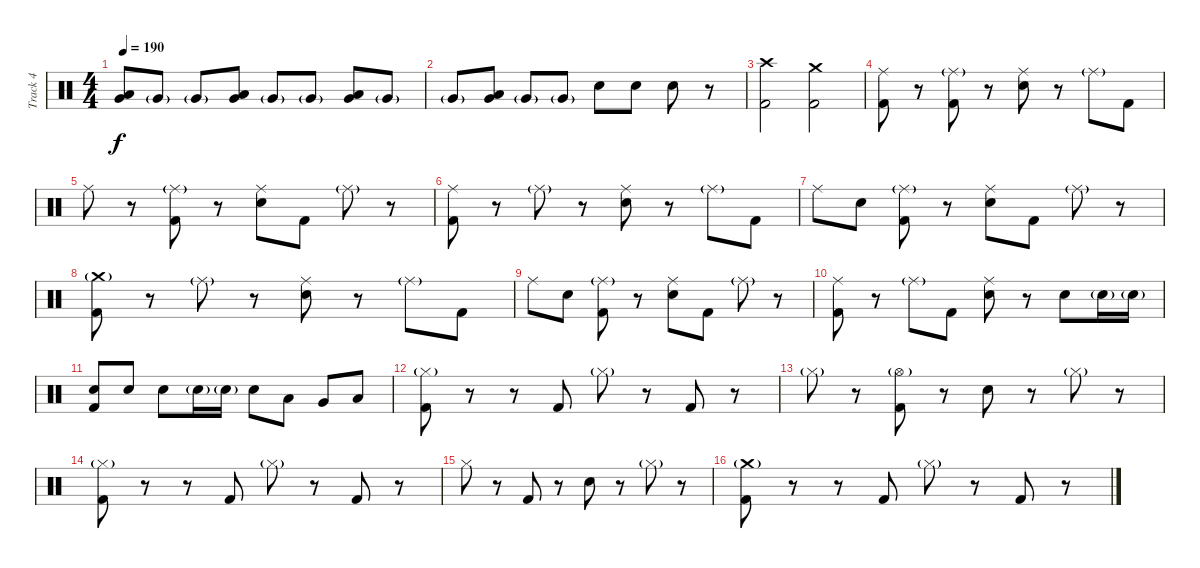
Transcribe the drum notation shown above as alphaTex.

\track ("Track 4" "Track 4") {instrument percussion}
\staff {score}
\articulation defaults
\ts (4 4)
\tempo 190
\clef neutral
\ks c
("Very Low Tom (hit)" "Low Tom (hit)").8{dy f} "Very Low Tom (hit)"{g}.8 "Very Low Tom (hit)"{g}.8 ("Very Low Tom (hit)" "Low Tom (hit)").8 "Very Low Tom (hit)"{g}.8 "Very Low Tom (hit)"{g}.8 ("Very Low Tom (hit)" "Low Tom (hit)").8 "Very Low Tom (hit)"{g}.8 |
"Very Low Tom (hit)"{g}.8 ("Very Low Tom (hit)" "Low Tom (hit)").8 "Very Low Tom (hit)"{g}.8 "Very Low Tom (hit)"{g}.8 "Electric Snare (hit)".8 "Electric Snare (hit)".8 "Electric Snare (hit)".8 r.8 |
("Crash high (hit)" "Kick (hit) 2").2 ("Crash medium (hit)" "Kick (hit) 2").2 |
("Ride (middle)" "Kick (hit) 2").8 r.8 ("Ride (middle)"{g} "Kick (hit) 2").8 r.8 ("Ride (middle)" "Electric Snare (hit)").8 r.8 "Ride (middle)"{g}.8 "Kick (hit) 2".8 |
"Ride (middle)".8 r.8 ("Ride (middle)"{g} "Kick (hit) 2").8 r.8 ("Ride (middle)" "Electric Snare (hit)").8 "Kick (hit) 2".8 "Ride (middle)"{g}.8 r.8 |
("Ride (middle)" "Kick (hit) 2").8 r.8 "Ride (middle)"{g}.8 r.8 ("Ride (middle)" "Electric Snare (hit)").8 r.8 "Ride (middle)"{g}.8 "Kick (hit) 2".8 |
"Ride (middle)".8 "Electric Snare (hit)".8 ("Ride (middle)"{g} "Kick (hit) 2").8 r.8 ("Ride (middle)" "Electric Snare (hit)").8 "Kick (hit) 2".8 "Ride (middle)"{g}.8 r.8 |
("Crash medium (hit)"{g} "Kick (hit) 2").8 r.8 "Ride (middle)"{g}.8 r.8 ("Ride (middle)" "Electric Snare (hit)").8 r.8 "Ride (middle)"{g}.8 "Kick (hit) 2".8 |
"Ride (middle)".8 "Electric Snare (hit)".8 ("Ride (middle)"{g} "Kick (hit) 2").8 r.8 ("Ride (middle)" "Electric Snare (hit)").8 "Kick (hit) 2".8 "Ride (middle)"{g}.8 r.8 |
("Ride (middle)" "Kick (hit) 2").8 r.8 "Ride (middle)"{g}.8 "Kick (hit) 2".8 ("Ride (middle)" "Electric Snare (hit)").8 r.8 "Electric Snare (hit)".8 "Electric Snare (hit)"{g}.16 "Electric Snare (hit)"{g}.16 |
("Electric Snare (hit)" "Kick (hit) 2").8 "Electric Snare (hit)".8 "Electric Snare (hit)".8 "Electric Snare (hit)"{g}.16 "Electric Snare (hit)"{g}.16 "Electric Snare (hit)".8 "Low Tom (hit)".8 "Very Low Tom (hit)".8 "Low Floor Tom (hit)".8 |
("Hi-Hat (closed)"{g} "Kick (hit) 2").8 r.8 r.8 "Kick (hit) 2".8 "Hi-Hat (closed)"{g}.8 r.8 "Kick (hit) 2".8 r.8 |
"Hi-Hat (closed)"{g}.8 r.8 ("Hi-Hat (open)"{g} "Kick (hit) 2").8 r.8 "Electric Snare (hit)".8 r.8 "Hi-Hat (closed)"{g}.8 r.8 |
("Hi-Hat (closed)"{g} "Kick (hit) 2").8 r.8 r.8 "Kick (hit) 2".8 "Hi-Hat (closed)"{g}.8 r.8 "Kick (hit) 2".8 r.8 |
"Hi-Hat (closed)".8 r.8 "Kick (hit) 2".8 r.8 "Electric Snare (hit)".8 r.8 "Hi-Hat (closed)"{g}.8 r.8 |
("Crash medium (hit)"{g} "Kick (hit) 2").8 r.8 r.8 "Kick (hit) 2".8 "Hi-Hat (closed)"{g}.8 r.8 "Kick (hit) 2".8 r.8
